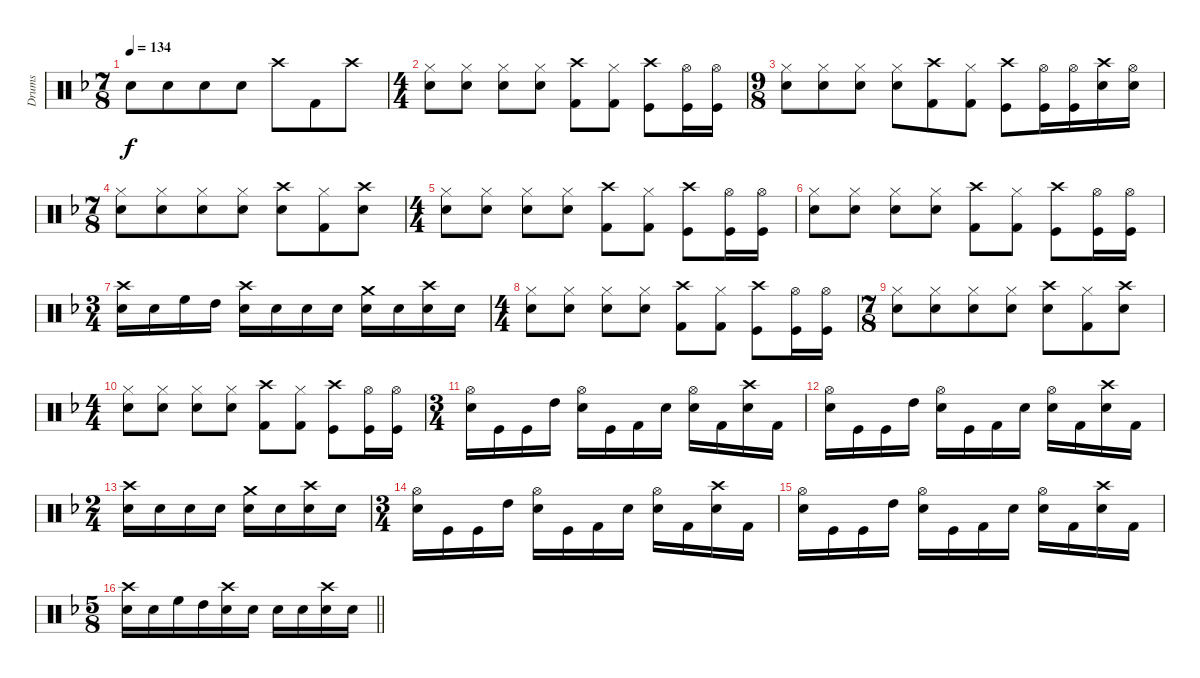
\track ("Drums" "Drums") {instrument percussion}
\staff {score}
\articulation defaults
\ts (7 8)
\tempo 134
\clef neutral
\ks f "Snare (hit) 2".8{dy f} "Electric Snare (hit)".8 "Snare (hit) 2".8 "Snare (hit) 2".8 "Crash high (hit)".8 "Kick (hit) 2".8 "Crash high (hit)".8
|
\ts (4 4)
("Snare (hit) 2" "Hi-Hat (closed)").8 ("Electric Snare (hit)" "Hi-Hat (closed)").8 ("Snare (hit) 2" "Hi-Hat (closed)").8 ("Snare (hit) 2" "Hi-Hat (closed)").8 ("Kick (hit) 2" "Crash high (hit)").8 ("Kick (hit) 2" "Hi-Hat (closed)").8 ("Kick (hit)" "Crash high (hit)").8 ("Kick (hit)" "Hi-Hat (open)").16 ("Kick (hit)" "Hi-Hat (open)").16 |
\ts (9 8)
("Snare (hit) 2" "Hi-Hat (closed)").8 ("Electric Snare (hit)" "Hi-Hat (closed)").8 ("Snare (hit) 2" "Hi-Hat (closed)").8 ("Snare (hit) 2" "Hi-Hat (closed)").8 ("Kick (hit) 2" "Crash high (hit)").8 ("Kick (hit) 2" "Hi-Hat (closed)").8 ("Kick (hit)" "Crash high (hit)").8 ("Kick (hit)" "Hi-Hat (open)").16 ("Kick (hit)" "Hi-Hat (open)").16 ("Snare (hit) 2" "Crash high (hit)").16 ("Electric Snare (hit)" "Hi-Hat (open)").16 |
\ts (7 8)
("Snare (hit) 2" "Hi-Hat (closed)").8 ("Electric Snare (hit)" "Hi-Hat (closed)").8 ("Snare (hit) 2" "Hi-Hat (closed)").8 ("Snare (hit) 2" "Hi-Hat (closed)").8 ("Snare (hit) 2" "Crash high (hit)").8 ("Kick (hit) 2" "Hi-Hat (closed)").8 ("Snare (hit) 2" "Crash high (hit)").8 |
\ts (4 4)
("Snare (hit) 2" "Hi-Hat (closed)").8 ("Electric Snare (hit)" "Hi-Hat (closed)").8 ("Snare (hit) 2" "Hi-Hat (closed)").8 ("Snare (hit) 2" "Hi-Hat (closed)").8 ("Kick (hit) 2" "Crash high (hit)").8 ("Kick (hit) 2" "Hi-Hat (closed)").8 ("Kick (hit)" "Crash high (hit)").8 ("Kick (hit)" "Hi-Hat (open)").16 ("Kick (hit)" "Hi-Hat (open)").16 |
("Snare (hit) 2" "Hi-Hat (closed)").8 ("Electric Snare (hit)" "Hi-Hat (closed)").8 ("Snare (hit) 2" "Hi-Hat (closed)").8 ("Snare (hit) 2" "Hi-Hat (closed)").8 ("Kick (hit) 2" "Crash high (hit)").8 ("Kick (hit) 2" "Hi-Hat (closed)").8 ("Kick (hit)" "Crash high (hit)").8 ("Kick (hit)" "Hi-Hat (open)").16 ("Kick (hit)" "Hi-Hat (open)").16 |
\ts (3 4)
("Electric Snare (hit)" "Crash high (hit)").16 "Snare (hit) 2".16 "High Floor Tom (hit)".16 "High Tom (hit)".16 ("Electric Snare (hit)" "Crash high (hit)").16 "Electric Snare (hit)".16 "Electric Snare (hit)".16 "Electric Snare (hit)".16 ("Snare (hit) 2" "Crash medium (hit)").16 "Snare (hit) 2".16 ("Electric Snare (hit)" "Crash high (hit)").16 "Snare (hit) 2".16 |
\ts (4 4)
("Snare (hit) 2" "Hi-Hat (closed)").8 ("Electric Snare (hit)" "Hi-Hat (closed)").8 ("Snare (hit) 2" "Hi-Hat (closed)").8 ("Snare (hit) 2" "Hi-Hat (closed)").8 ("Kick (hit) 2" "Crash high (hit)").8 ("Kick (hit) 2" "Hi-Hat (closed)").8 ("Kick (hit)" "Crash high (hit)").8 ("Kick (hit)" "Hi-Hat (open)").16 ("Kick (hit)" "Hi-Hat (open)").16 |
\ts (7 8)
("Snare (hit) 2" "Hi-Hat (closed)").8 ("Electric Snare (hit)" "Hi-Hat (closed)").8 ("Snare (hit) 2" "Hi-Hat (closed)").8 ("Snare (hit) 2" "Hi-Hat (closed)").8 ("Snare (hit) 2" "Crash high (hit)").8 ("Kick (hit) 2" "Hi-Hat (closed)").8 ("Snare (hit) 2" "Crash high (hit)").8 |
\ts (4 4)
("Snare (hit) 2" "Hi-Hat (closed)").8 ("Electric Snare (hit)" "Hi-Hat (closed)").8 ("Snare (hit) 2" "Hi-Hat (closed)").8 ("Snare (hit) 2" "Hi-Hat (closed)").8 ("Kick (hit) 2" "Crash high (hit)").8 ("Kick (hit) 2" "Hi-Hat (closed)").8 ("Kick (hit)" "Crash high (hit)").8 ("Kick (hit)" "Hi-Hat (open)").16 ("Kick (hit)" "Hi-Hat (open)").16 |
\ts (3 4)
("Electric Snare (hit)" "Hi-Hat (open)").16 "Kick (hit)".16 "Kick (hit)".16 "High Tom (hit)".16 ("Electric Snare (hit)" "Hi-Hat (open)").16 "Kick (hit)".16 "Kick (hit) 2".16 "Electric Snare (hit)".16 ("Snare (hit) 2" "Hi-Hat (open)").16 "Kick (hit) 2".16 ("Electric Snare (hit)" "Crash high (hit)").16 "Kick (hit) 2".16 |
("Electric Snare (hit)" "Hi-Hat (open)").16 "Kick (hit)".16 "Kick (hit)".16 "High Tom (hit)".16 ("Electric Snare (hit)" "Hi-Hat (open)").16 "Kick (hit)".16 "Kick (hit) 2".16 "Electric Snare (hit)".16 ("Snare (hit) 2" "Hi-Hat (open)").16 "Kick (hit) 2".16 ("Electric Snare (hit)" "Crash high (hit)").16 "Kick (hit) 2".16 |
\ts (2 4)
("Electric Snare (hit)" "Crash high (hit)").16 "Electric Snare (hit)".16 "Electric Snare (hit)".16 "Electric Snare (hit)".16 ("Snare (hit) 2" "Crash medium (hit)").16 "Snare (hit) 2".16 ("Electric Snare (hit)" "Crash high (hit)").16 "Snare (hit) 2".16 |
\ts (3 4)
("Electric Snare (hit)" "Hi-Hat (open)").16 "Kick (hit)".16 "Kick (hit)".16 "High Tom (hit)".16 ("Electric Snare (hit)" "Hi-Hat (open)").16 "Kick (hit)".16 "Kick (hit) 2".16 "Electric Snare (hit)".16 ("Snare (hit) 2" "Hi-Hat (open)").16 "Kick (hit) 2".16 ("Electric Snare (hit)" "Crash high (hit)").16 "Kick (hit) 2".16 |
("Electric Snare (hit)" "Hi-Hat (open)").16 "Kick (hit)".16 "Kick (hit)".16 "High Tom (hit)".16 ("Electric Snare (hit)" "Hi-Hat (open)").16 "Kick (hit)".16 "Kick (hit) 2".16 "Electric Snare (hit)".16 ("Snare (hit) 2" "Hi-Hat (open)").16 "Kick (hit) 2".16 ("Electric Snare (hit)" "Crash high (hit)").16 "Kick (hit) 2".16 |
\ts (5 8)
\barLineRight lightlight
("Electric Snare (hit)" "Crash high (hit)").16 "Snare (hit) 2".16 "High Floor Tom (hit)".16 "High Tom (hit)".16 ("Electric Snare (hit)" "Crash high (hit)").16 "Electric Snare (hit)".16 "Electric Snare (hit)".16 "Electric Snare (hit)".16 ("Snare (hit) 2" "Crash high (hit)").16 "Snare (hit) 2".16
